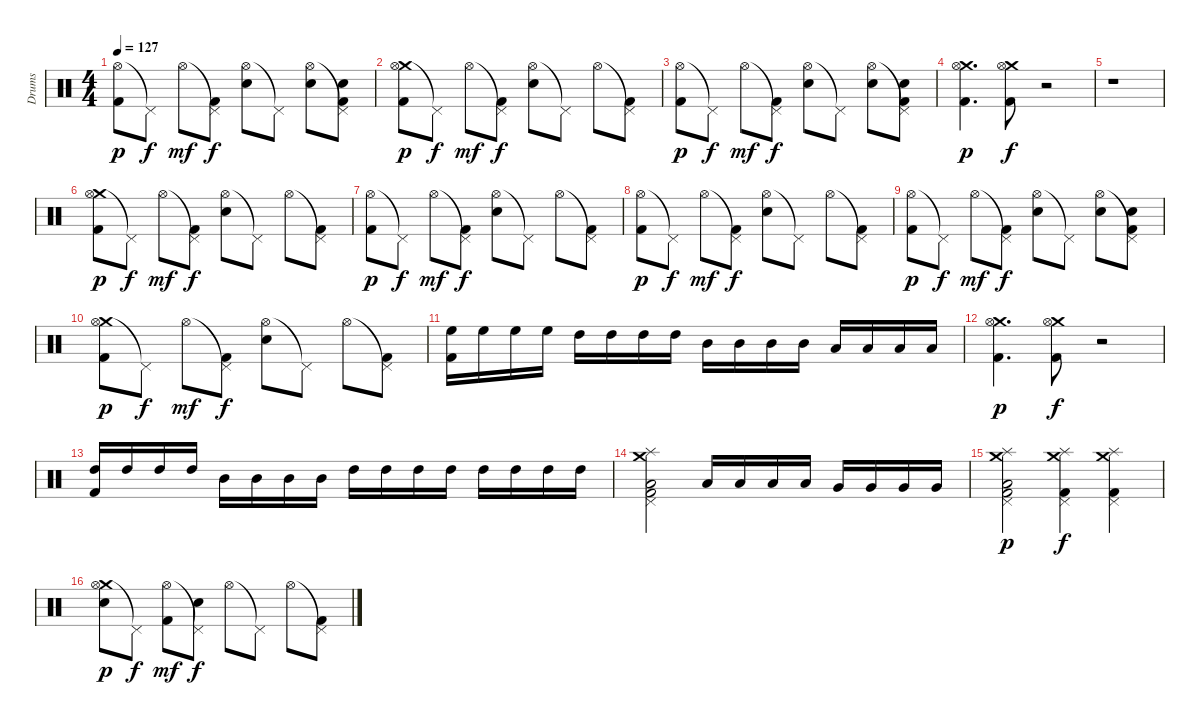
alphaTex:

\track ("Drums" "Drums") {instrument percussion}
\staff {score}
\articulation defaults
\ts (4 4)
\tempo 127
\clef neutral
\ks c
("Hi-Hat (open)" "Kick (hit) 2").8{dy p} "Pedal Hi-Hat (hit)"{t}.8{dy f} "Hi-Hat (open)".8{dy mf} ("Pedal Hi-Hat (hit)"{t} "Kick (hit) 2").8{dy f} ("Hi-Hat (open)" "Electric Snare (hit)").8 "Pedal Hi-Hat (hit)"{t}.8 ("Hi-Hat (open)" "Electric Snare (hit)").8 ("Pedal Hi-Hat (hit)"{t} "Electric Snare (hit)" "Kick (hit) 2").8 |
("Crash medium (hit)" "Hi-Hat (open)" "Kick (hit) 2").8{dy p} "Pedal Hi-Hat (hit)"{t}.8{dy f} "Hi-Hat (open)".8{dy mf} ("Pedal Hi-Hat (hit)"{t} "Kick (hit) 2").8{dy f} ("Hi-Hat (open)" "Electric Snare (hit)").8 "Pedal Hi-Hat (hit)"{t}.8 "Hi-Hat (open)".8 ("Pedal Hi-Hat (hit)"{t} "Kick (hit) 2").8 |
("Hi-Hat (open)" "Kick (hit) 2").8{dy p} "Pedal Hi-Hat (hit)"{t}.8{dy f} "Hi-Hat (open)".8{dy mf} ("Pedal Hi-Hat (hit)"{t} "Kick (hit) 2").8{dy f} ("Hi-Hat (open)" "Electric Snare (hit)").8 "Pedal Hi-Hat (hit)"{t}.8 ("Hi-Hat (open)" "Electric Snare (hit)").8 ("Pedal Hi-Hat (hit)"{t} "Electric Snare (hit)" "Kick (hit) 2").8 |
("Crash medium (hit)" "Hi-Hat (open)" "Kick (hit) 2").4{d dy p} ("Crash medium (hit)" "Hi-Hat (open)" "Kick (hit) 2").8{dy f} r.2 |
r.1 |
("Crash medium (hit)" "Hi-Hat (open)" "Kick (hit) 2").8{dy p} "Pedal Hi-Hat (hit)"{t}.8{dy f} "Hi-Hat (open)".8{dy mf} ("Pedal Hi-Hat (hit)"{t} "Kick (hit) 2").8{dy f} ("Hi-Hat (open)" "Electric Snare (hit)").8 "Pedal Hi-Hat (hit)"{t}.8 "Hi-Hat (open)".8 ("Pedal Hi-Hat (hit)"{t} "Kick (hit) 2").8 |
("Hi-Hat (open)" "Kick (hit) 2").8{dy p} "Pedal Hi-Hat (hit)"{t}.8{dy f} "Hi-Hat (open)".8{dy mf} ("Pedal Hi-Hat (hit)"{t} "Kick (hit) 2").8{dy f} ("Hi-Hat (open)" "Electric Snare (hit)").8 "Pedal Hi-Hat (hit)"{t}.8 "Hi-Hat (open)".8 ("Pedal Hi-Hat (hit)"{t} "Kick (hit) 2").8 |
("Hi-Hat (open)" "Kick (hit) 2").8{dy p} "Pedal Hi-Hat (hit)"{t}.8{dy f} "Hi-Hat (open)".8{dy mf} ("Pedal Hi-Hat (hit)"{t} "Kick (hit) 2").8{dy f} ("Hi-Hat (open)" "Electric Snare (hit)").8 "Pedal Hi-Hat (hit)"{t}.8 "Hi-Hat (open)".8 ("Pedal Hi-Hat (hit)"{t} "Kick (hit) 2").8 |
("Hi-Hat (open)" "Kick (hit) 2").8{dy p} "Pedal Hi-Hat (hit)"{t}.8{dy f} "Hi-Hat (open)".8{dy mf} ("Pedal Hi-Hat (hit)"{t} "Kick (hit) 2").8{dy f} ("Hi-Hat (open)" "Electric Snare (hit)").8 "Pedal Hi-Hat (hit)"{t}.8 ("Hi-Hat (open)" "Electric Snare (hit)").8 ("Pedal Hi-Hat (hit)"{t} "Electric Snare (hit)" "Kick (hit) 2").8 |
("Crash medium (hit)" "Hi-Hat (open)" "Kick (hit) 2").8{dy p} "Pedal Hi-Hat (hit)"{t}.8{dy f} "Hi-Hat (open)".8{dy mf} ("Pedal Hi-Hat (hit)"{t} "Kick (hit) 2").8{dy f} ("Hi-Hat (open)" "Electric Snare (hit)").8 "Pedal Hi-Hat (hit)"{t}.8 "Hi-Hat (open)".8 ("Pedal Hi-Hat (hit)"{t} "Kick (hit) 2").8 |
("High Floor Tom (hit)" "Kick (hit) 2").16 "High Floor Tom (hit)".16 "High Floor Tom (hit)".16 "High Floor Tom (hit)".16 "High Tom (hit)".16 "High Tom (hit)".16 "High Tom (hit)".16 "High Tom (hit)".16 "Mid Tom (hit)".16 "Mid Tom (hit)".16 "Mid Tom (hit)".16 "Mid Tom (hit)".16 "Low Tom (hit)".16 "Low Tom (hit)".16 "Low Tom (hit)".16 "Low Tom (hit)".16 |
("Crash medium (hit)" "Hi-Hat (open)" "Kick (hit) 2").4{d dy p} ("Crash medium (hit)" "Hi-Hat (open)" "Kick (hit) 2").8{dy f} r.2 |
("High Tom (hit)" "Kick (hit) 2").16 "High Tom (hit)".16 "High Tom (hit)".16 "High Tom (hit)".16 "Mid Tom (hit)".16 "Mid Tom (hit)".16 "Mid Tom (hit)".16 "Mid Tom (hit)".16 "High Tom (hit)".16 "High Tom (hit)".16 "High Tom (hit)".16 "High Tom (hit)".16 "High Tom (hit)".16 "High Tom (hit)".16 "High Tom (hit)".16 "High Tom (hit)".16 |
("Crash medium (hit)" "Splash (hit)" "Pedal Hi-Hat (hit)" "Low Tom (hit)" "Kick (hit) 2").2 "Low Tom (hit)".16 "Low Tom (hit)".16 "Low Tom (hit)".16 "Low Tom (hit)".16 "Very Low Tom (hit)".16 "Very Low Tom (hit)".16 "Very Low Tom (hit)".16 "Very Low Tom (hit)".16 |
("Crash medium (hit)" "Splash (hit)" "Pedal Hi-Hat (hit)" "Low Tom (hit)" "Kick (hit) 2").2{dy p} ("Crash medium (hit)" "Splash (hit)" "Pedal Hi-Hat (hit)" "Kick (hit) 2").4{dy f} ("Crash medium (hit)" "Splash (hit)" "Pedal Hi-Hat (hit)" "Kick (hit) 2").4 |
("Crash medium (hit)" "Hi-Hat (open)" "Electric Snare (hit)").8{dy p} "Pedal Hi-Hat (hit)"{t}.8{dy f} ("Hi-Hat (open)" "Kick (hit) 2").8{dy mf} ("Pedal Hi-Hat (hit)"{t} "Electric Snare (hit)").8{dy f} "Hi-Hat (open)".8 "Pedal Hi-Hat (hit)"{t}.8 "Hi-Hat (open)".8 ("Pedal Hi-Hat (hit)"{t} "Kick (hit) 2").8
